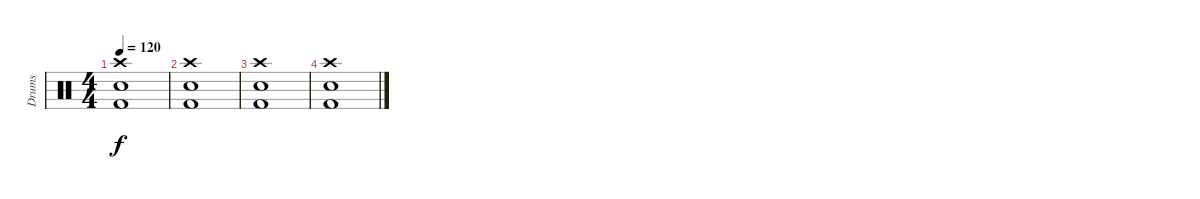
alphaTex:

\track ("Drums" "Drums") {instrument percussion}
\staff {score}
\articulation defaults
\ts (4 4)
\tempo 120
\clef neutral
\ks c
("Crash high (hit)" "Snare (hit) 2" "Kick (hit) 2").1{dy f} |
("Crash high (hit)" "Snare (hit) 2" "Kick (hit) 2").1 |
("Crash high (hit)" "Snare (hit) 2" "Kick (hit) 2").1 |
("Crash high (hit)" "Snare (hit) 2" "Kick (hit) 2").1
